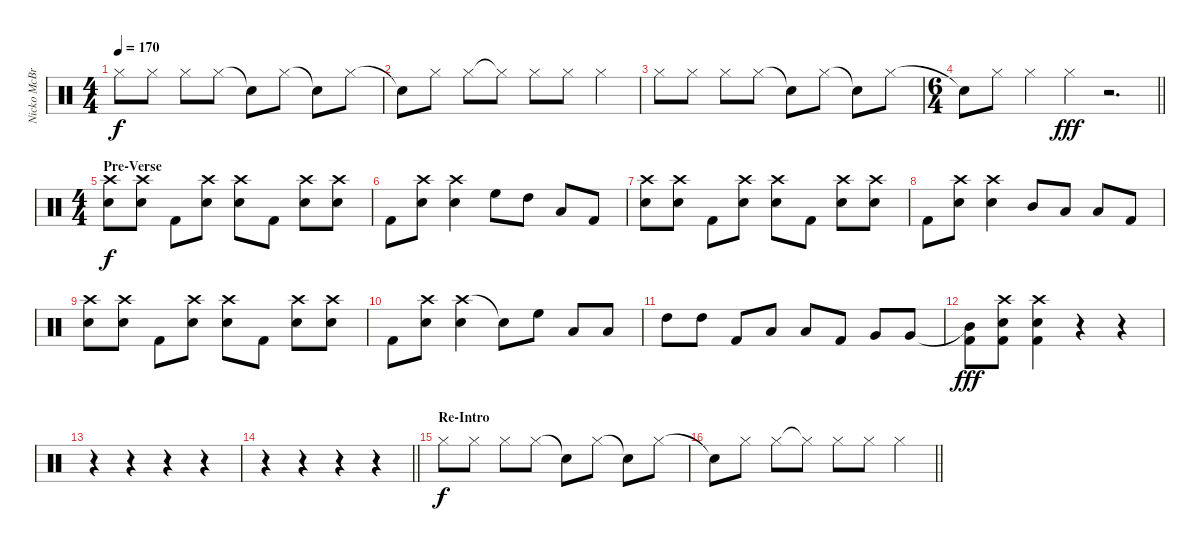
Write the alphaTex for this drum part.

\track ("Nicko McBrian" "Nicko McBr") {instrument percussion}
\staff {score}
\articulation defaults
\ts (4 4)
\tempo 170
\clef neutral
\ks c "Hi-Hat (closed)".8{dy f} "Hi-Hat (closed)".8 "Hi-Hat (closed)".8 "Hi-Hat (closed)".8 "Snare (hit)"{t}.8 "Hi-Hat (closed)".8 "Snare (hit)"{t}.8 "Hi-Hat (closed)".8
|
"Snare (hit)"{t}.8 "Hi-Hat (closed)".8 "Hi-Hat (closed)".8 "Hi-Hat (closed)"{t}.8 "Hi-Hat (closed)".8 "Hi-Hat (closed)".8 "Hi-Hat (closed)".4 |
"Hi-Hat (closed)".8 "Hi-Hat (closed)".8 "Hi-Hat (closed)".8 "Hi-Hat (closed)".8 "Snare (hit)"{t}.8 "Hi-Hat (closed)".8 "Snare (hit)"{t}.8 "Hi-Hat (closed)".8 |
\ts (6 4)
\barLineRight lightlight "Snare (hit)"{t}.8 "Hi-Hat (closed)".8 "Hi-Hat (closed)".4 "Hi-Hat (closed)".4{dy fff}
r.2{d} |
\ts (4 4)
\section ("" "Pre-Verse")
("Crash high (hit)" "Electric Snare (hit)").8{dy f} ("Crash high (hit)" "Electric Snare (hit)").8 "Kick (hit) 2".8 ("Crash high (hit)" "Electric Snare (hit)").8 ("Crash high (hit)" "Electric Snare (hit)").8 "Kick (hit) 2".8 ("Crash high (hit)" "Electric Snare (hit)").8 ("Crash high (hit)" "Electric Snare (hit)").8 |
"Kick (hit) 2".8 ("Crash high (hit)" "Electric Snare (hit)").8 ("Crash high (hit)" "Electric Snare (hit)").4 "High Floor Tom (hit)".8 "High Tom (hit)".8 "Low Tom (hit)".8 "Kick (hit) 2".8 |
("Crash high (hit)" "Electric Snare (hit)").8 ("Crash high (hit)" "Electric Snare (hit)").8 "Kick (hit) 2".8 ("Crash high (hit)" "Electric Snare (hit)").8 ("Crash high (hit)" "Electric Snare (hit)").8 "Kick (hit) 2".8 ("Crash high (hit)" "Electric Snare (hit)").8 ("Crash high (hit)" "Electric Snare (hit)").8 |
"Kick (hit) 2".8 ("Crash high (hit)" "Electric Snare (hit)").8 ("Crash high (hit)" "Electric Snare (hit)").4 "Mid Tom (hit)".8 "Low Tom (hit)".8 "Low Floor Tom (hit)".8 "Kick (hit) 2".8 |
("Crash high (hit)" "Electric Snare (hit)").8 ("Crash high (hit)" "Electric Snare (hit)").8 "Kick (hit) 2".8 ("Crash high (hit)" "Electric Snare (hit)").8 ("Crash high (hit)" "Electric Snare (hit)").8 "Kick (hit) 2".8 ("Crash high (hit)" "Electric Snare (hit)").8 ("Crash high (hit)" "Electric Snare (hit)").8 |
"Kick (hit) 2".8 ("Crash high (hit)" "Electric Snare (hit)").8 ("Crash high (hit)" "Electric Snare (hit)").4 "Snare (hit)"{t}.8 "High Floor Tom (hit)".8 "Low Tom (hit)".8 "Low Floor Tom (hit)".8 |
"High Tom (hit)".8 "High Tom (hit)".8 "Kick (hit) 2".8 "Low Tom (hit)".8 "Low Tom (hit)".8 "Kick (hit) 2".8 "Very Low Tom (hit)".8 "Very Low Tom (hit)".8 |
("Mid Tom (hit)"{t} "Kick (hit) 2").8{dy fff} ("Crash high (hit)" "Electric Snare (hit)" "Kick (hit) 2").8 ("Crash high (hit)" "Electric Snare (hit)" "Kick (hit) 2").4 r.4 r.4 |
r.4 r.4 r.4 r.4 |
\barLineRight lightlight
r.4 r.4 r.4 r.4 |
\section ("" "Re-Intro")
"Hi-Hat (closed)".8{dy f} "Hi-Hat (closed)".8 "Hi-Hat (closed)".8 "Hi-Hat (closed)".8 "Snare (hit)"{t}.8 "Hi-Hat (closed)".8 "Snare (hit)"{t}.8 "Hi-Hat (closed)".8 |
\barLineRight lightlight "Snare (hit)"{t}.8 "Hi-Hat (closed)".8 "Hi-Hat (closed)".8 "Hi-Hat (closed)"{t}.8 "Hi-Hat (closed)".8 "Hi-Hat (closed)".8 "Hi-Hat (closed)".4
